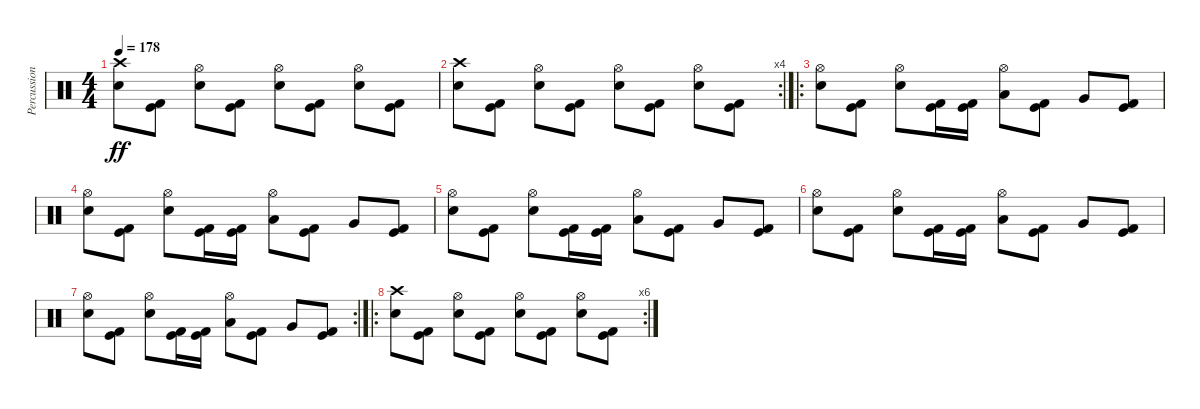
\track ("Percussion" "Percussion") {instrument percussion}
\staff {score}
\articulation defaults
\ts (4 4)
\tempo 178
\clef neutral
\ks c
("Electric Snare (hit)" "Crash high (hit)").8{dy ff} ("Kick (hit)" "Kick (hit) 2").8 ("Electric Snare (hit)" "Hi-Hat (open)").8 ("Kick (hit)" "Kick (hit) 2").8 ("Electric Snare (hit)" "Hi-Hat (open)").8 ("Kick (hit)" "Kick (hit) 2").8 ("Electric Snare (hit)" "Hi-Hat (open)").8 ("Kick (hit)" "Kick (hit) 2").8 |
\rc 4
("Electric Snare (hit)" "Crash high (hit)").8 ("Kick (hit)" "Kick (hit) 2").8 ("Electric Snare (hit)" "Hi-Hat (open)").8 ("Kick (hit)" "Kick (hit) 2").8 ("Electric Snare (hit)" "Hi-Hat (open)").8 ("Kick (hit)" "Kick (hit) 2").8 ("Electric Snare (hit)" "Hi-Hat (open)").8 ("Kick (hit)" "Kick (hit) 2").8 |
\ro
("Electric Snare (hit)" "Hi-Hat (open)").8 ("Kick (hit)" "Kick (hit) 2").8 ("Electric Snare (hit)" "Hi-Hat (open)").8 ("Kick (hit)" "Kick (hit) 2").16 ("Kick (hit)" "Kick (hit) 2").16 ("Low Tom (hit)" "Hi-Hat (open)").8 ("Kick (hit)" "Kick (hit) 2").8 "Very Low Tom (hit)".8 ("Kick (hit)" "Kick (hit) 2").8 |
("Electric Snare (hit)" "Hi-Hat (open)").8 ("Kick (hit)" "Kick (hit) 2").8 ("Electric Snare (hit)" "Hi-Hat (open)").8 ("Kick (hit)" "Kick (hit) 2").16 ("Kick (hit)" "Kick (hit) 2").16 ("Low Tom (hit)" "Hi-Hat (open)").8 ("Kick (hit)" "Kick (hit) 2").8 "Very Low Tom (hit)".8 ("Kick (hit)" "Kick (hit) 2").8 |
("Electric Snare (hit)" "Hi-Hat (open)").8 ("Kick (hit)" "Kick (hit) 2").8 ("Electric Snare (hit)" "Hi-Hat (open)").8 ("Kick (hit)" "Kick (hit) 2").16 ("Kick (hit)" "Kick (hit) 2").16 ("Low Tom (hit)" "Hi-Hat (open)").8 ("Kick (hit)" "Kick (hit) 2").8 "Very Low Tom (hit)".8 ("Kick (hit)" "Kick (hit) 2").8 |
("Electric Snare (hit)" "Hi-Hat (open)").8 ("Kick (hit)" "Kick (hit) 2").8 ("Electric Snare (hit)" "Hi-Hat (open)").8 ("Kick (hit)" "Kick (hit) 2").16 ("Kick (hit)" "Kick (hit) 2").16 ("Low Tom (hit)" "Hi-Hat (open)").8 ("Kick (hit)" "Kick (hit) 2").8 "Very Low Tom (hit)".8 ("Kick (hit)" "Kick (hit) 2").8 |
\rc 2
("Electric Snare (hit)" "Hi-Hat (open)").8 ("Kick (hit)" "Kick (hit) 2").8 ("Electric Snare (hit)" "Hi-Hat (open)").8 ("Kick (hit)" "Kick (hit) 2").16 ("Kick (hit)" "Kick (hit) 2").16 ("Low Tom (hit)" "Hi-Hat (open)").8 ("Kick (hit)" "Kick (hit) 2").8 "Very Low Tom (hit)".8 ("Kick (hit)" "Kick (hit) 2").8 |
\ro
\rc 6
("Electric Snare (hit)" "Crash high (hit)").8 ("Kick (hit)" "Kick (hit) 2").8 ("Electric Snare (hit)" "Hi-Hat (open)").8 ("Kick (hit)" "Kick (hit) 2").8 ("Electric Snare (hit)" "Hi-Hat (open)").8 ("Kick (hit)" "Kick (hit) 2").8 ("Electric Snare (hit)" "Hi-Hat (open)").8 ("Kick (hit)" "Kick (hit) 2").8
